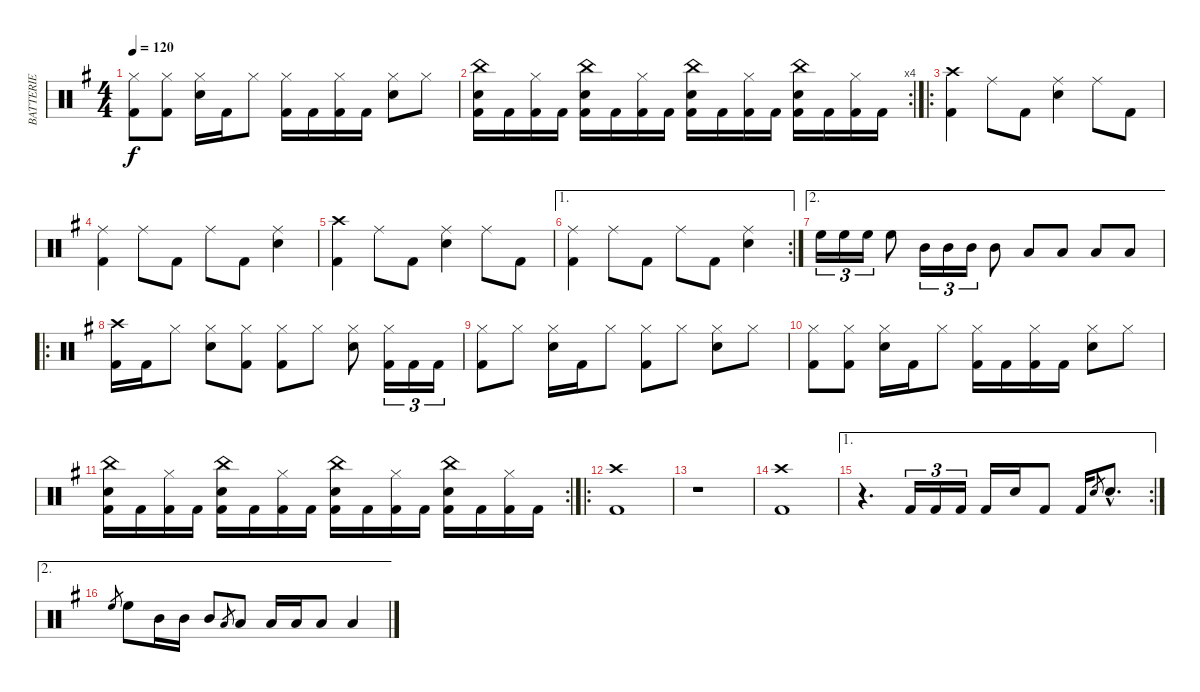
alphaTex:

\track ("BATTERIE" "BATTERIE") {instrument percussion}
\staff {score}
\articulation defaults
\ts (4 4)
\tempo 120
\clef neutral
\ks g
("Hi-Hat (closed)" "Kick (hit) 2").8{dy f} ("Hi-Hat (closed)" "Kick (hit) 2").8 ("Hi-Hat (closed)" "Snare (hit) 2").16 "Kick (hit) 2".16 "Hi-Hat (closed)".8 ("Hi-Hat (closed)" "Kick (hit) 2").16 "Kick (hit) 2".16 ("Hi-Hat (closed)" "Kick (hit) 2").16 "Kick (hit) 2".16 ("Hi-Hat (closed)" "Snare (hit) 2").8 "Hi-Hat (closed)".8 |
\rc 4
("China (hit)" "Snare (hit) 2" "Kick (hit) 2").16 "Kick (hit) 2".16 ("Hi-Hat (closed)" "Kick (hit) 2").16 "Kick (hit) 2".16 ("China (hit)" "Snare (hit) 2" "Kick (hit) 2").16 "Kick (hit) 2".16 ("Hi-Hat (closed)" "Kick (hit) 2").16 "Kick (hit) 2".16 ("China (hit)" "Snare (hit) 2" "Kick (hit) 2").16 "Kick (hit) 2".16 ("Hi-Hat (closed)" "Kick (hit) 2").16 "Kick (hit) 2".16 ("China (hit)" "Snare (hit) 2" "Kick (hit) 2").16 "Kick (hit) 2".16 ("Hi-Hat (closed)" "Kick (hit) 2").16 "Kick (hit) 2".16 |
\ro
("Crash high (hit)" "Kick (hit) 2").4 "Ride (middle)".8 "Kick (hit) 2".8 ("Ride (middle)" "Snare (hit) 2").4 "Ride (middle)".8 "Kick (hit) 2".8 |
("Ride (middle)" "Kick (hit) 2").4 "Ride (middle)".8 "Kick (hit) 2".8 "Ride (middle)".8 "Kick (hit) 2".8 ("Ride (middle)" "Snare (hit) 2").4 |
("Crash high (hit)" "Kick (hit) 2").4 "Ride (middle)".8 "Kick (hit) 2".8 ("Ride (middle)" "Snare (hit) 2").4 "Ride (middle)".8 "Kick (hit) 2".8 |
\ae 1
\rc 2
("Ride (middle)" "Kick (hit) 2").4 "Ride (middle)".8 "Kick (hit) 2".8 "Ride (middle)".8 "Kick (hit) 2".8 ("Ride (middle)" "Snare (hit) 2").4 |
\ae 2 "High Floor Tom (hit)".16{tu (3 2)} "High Floor Tom (hit)".16{tu (3 2)} "High Floor Tom (hit)".16{tu (3 2)} "High Floor Tom (hit)".8 "Mid Tom (hit)".16{tu (3 2)} "Mid Tom (hit)".16{tu (3 2)} "Mid Tom (hit)".16{tu (3 2)} "Mid Tom (hit)".8 "Low Tom (hit)".8 "Low Tom (hit)".8 "Low Floor Tom (hit)".8 "Low Floor Tom (hit)".8
|
\ro
("Crash high (hit)" "Kick (hit) 2").16 "Kick (hit) 2".16 "Hi-Hat (closed)".8 ("Hi-Hat (closed)" "Snare (hit) 2").8 ("Hi-Hat (closed)" "Kick (hit) 2").8 ("Hi-Hat (closed)" "Kick (hit) 2").8 "Hi-Hat (closed)".8 ("Hi-Hat (closed)" "Snare (hit) 2").8 ("Hi-Hat (closed)" "Kick (hit) 2").16{tu (3 2)} "Kick (hit) 2".16{tu (3 2)} "Kick (hit) 2".16{tu (3 2)} |
("Hi-Hat (closed)" "Kick (hit) 2").8 "Hi-Hat (closed)".8 ("Hi-Hat (closed)" "Snare (hit) 2").16 "Kick (hit) 2".16 "Hi-Hat (closed)".8 ("Hi-Hat (closed)" "Kick (hit) 2").8 "Hi-Hat (closed)".8 ("Hi-Hat (closed)" "Snare (hit) 2").8 "Hi-Hat (closed)".8 |
("Hi-Hat (closed)" "Kick (hit) 2").8 ("Hi-Hat (closed)" "Kick (hit) 2").8 ("Hi-Hat (closed)" "Snare (hit) 2").16 "Kick (hit) 2".16 "Hi-Hat (closed)".8 ("Hi-Hat (closed)" "Kick (hit) 2").16 "Kick (hit) 2".16 ("Hi-Hat (closed)" "Kick (hit) 2").16 "Kick (hit) 2".16 ("Hi-Hat (closed)" "Snare (hit) 2").8 "Hi-Hat (closed)".8 |
\rc 2
("China (hit)" "Snare (hit) 2" "Kick (hit) 2").16 "Kick (hit) 2".16 ("Hi-Hat (closed)" "Kick (hit) 2").16 "Kick (hit) 2".16 ("China (hit)" "Snare (hit) 2" "Kick (hit) 2").16 "Kick (hit) 2".16 ("Hi-Hat (closed)" "Kick (hit) 2").16 "Kick (hit) 2".16 ("China (hit)" "Snare (hit) 2" "Kick (hit) 2").16 "Kick (hit) 2".16 ("Hi-Hat (closed)" "Kick (hit) 2").16 "Kick (hit) 2".16 ("China (hit)" "Snare (hit) 2" "Kick (hit) 2").16 "Kick (hit) 2".16 ("Hi-Hat (closed)" "Kick (hit) 2").16 "Kick (hit) 2".16 |
\ro
("Crash high (hit)" "Kick (hit) 2").1 |
r.1 |
("Crash high (hit)" "Kick (hit) 2").1 |
\ae 1
\rc 2
r.4{d} "Kick (hit) 2".16{tu (3 2)} "Kick (hit) 2".16{tu (3 2)} "Kick (hit) 2".16{tu (3 2)} "Kick (hit) 2".16 "Snare (hit) 2".16 "Kick (hit) 2".8 "Kick (hit) 2".16 "Snare (hit) 2".8{gr} "Snare (hit) 2"{hac}.8{d} |
\ae 2 "High Floor Tom (hit)".8{gr} "High Floor Tom (hit)".8 "Mid Tom (hit)".16 "Mid Tom (hit)".16 "Mid Tom (hit)".8 "Low Tom (hit)".8{gr} "Low Tom (hit)".8 "Low Tom (hit)".16 "Low Tom (hit)".16 "Low Floor Tom (hit)".8 "Low Floor Tom (hit)".4
